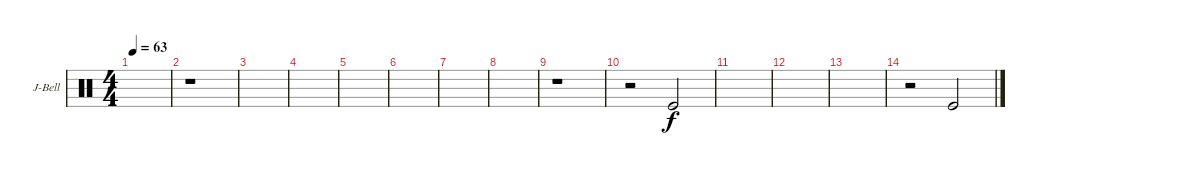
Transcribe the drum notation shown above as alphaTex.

\defaultSystemsLayout 4
\bracketExtendMode groupsimilarinstruments
\firstSystemTrackNameOrientation horizontal
\otherSystemsTrackNameOrientation horizontal
\track ("Jingle Bell" "J-Bell") {instrument percussion}
\staff {score}
\articulation defaults
\ts (4 4)
\tempo 63
\clef neutral
\scale
0.5
\ks c
|
\scale
0.25 r.1 |
\scale
0.25 |
\scale
0.333333 |
\scale
0.333333 |
\scale
0.333333 |
\scale
0.333333 |
\scale
0.333333 |
\scale
0.333333 r.1 |
\scale
0.333333 r.2 "Kick (hit)".2 |
\scale
0.333333 |
\scale
0.333333 |
\scale
0.333333 |
\scale
0.333333 r.2 "Kick (hit)".2 |
\scale
0.333333 |
\scale
0.333333
